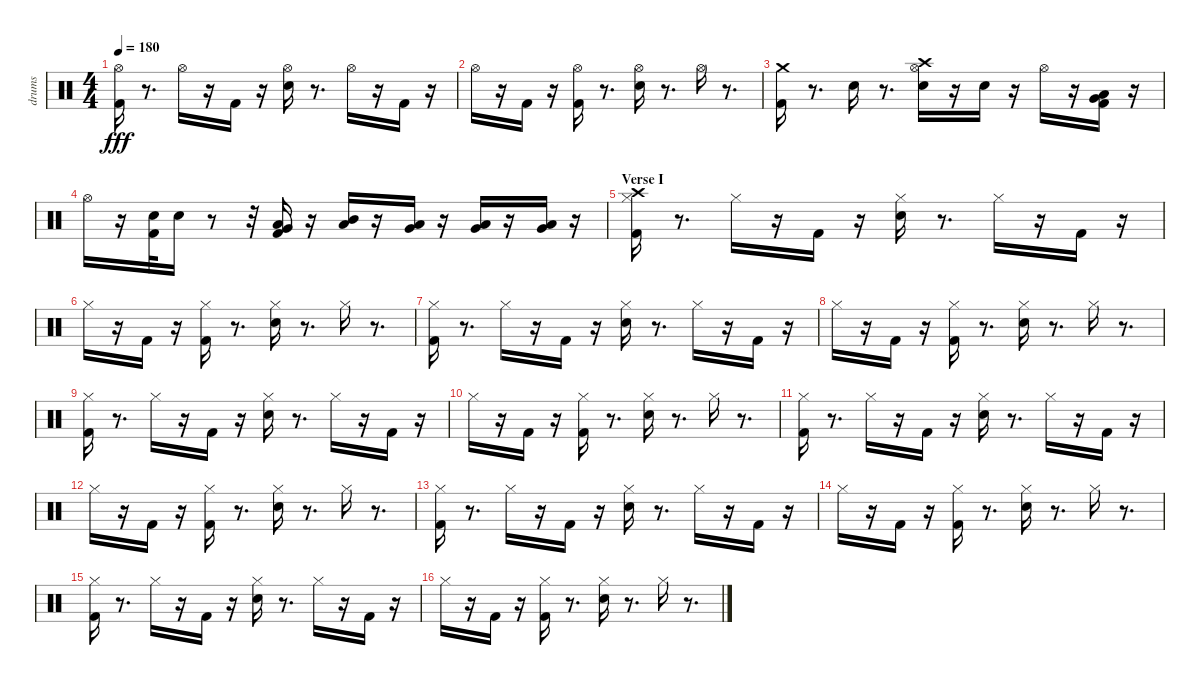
\track ("drums" "drums") {instrument percussion}
\staff {score}
\articulation defaults
\ts (4 4)
\tempo 180
\clef neutral
\ks c
("Kick (hit) 2" "Hi-Hat (open)").16{dy fff} r.8{d} "Hi-Hat (open)".16 r.16 "Kick (hit) 2".16 r.16 ("Electric Snare (hit)" "Hi-Hat (open)").16 r.8{d} "Hi-Hat (open)".16 r.16 "Kick (hit) 2".16 r.16 |
"Hi-Hat (open)".16 r.16 "Kick (hit) 2".16 r.16 ("Hi-Hat (open)" "Kick (hit) 2").16 r.8{d} ("Hi-Hat (open)" "Electric Snare (hit)").16 r.8{d} "Hi-Hat (open)".16 r.8{d} |
("Crash medium (hit)" "Kick (hit) 2").16 r.8{d} "Electric Snare (hit)".16 r.8{d} ("Crash high (hit)" "Hi-Hat (open)" "Electric Snare (hit)").16 r.16 "Electric Snare (hit)".16 r.16 "Hi-Hat (open)".16 r.16 ("Very Low Tom (hit)" "Low Floor Tom (hit)" "Kick (hit) 2").16 r.16 |
"Hi-Hat (open)".16 r.16 ("Electric Snare (hit)" "Kick (hit) 2").32 "Electric Snare (hit)".16 r.8 r.32 ("Low Tom (hit)" "Very Low Tom (hit)" "Kick (hit) 2").16 r.16 ("Mid Tom (hit)" "Low Tom (hit)").16 r.16 ("Low Tom (hit)" "Very Low Tom (hit)").16 r.16 ("Low Tom (hit)" "Very Low Tom (hit)").16 r.16 ("Very Low Tom (hit)" "Low Floor Tom (hit)").16 r.16 |
\section ("" "Verse I")
("Kick (hit) 2" "Crash high (hit)" "Hi-Hat (closed)").16 r.8{d} "Hi-Hat (closed)".16 r.16 "Kick (hit) 2".16 r.16 ("Electric Snare (hit)" "Hi-Hat (closed)").16 r.8{d} "Hi-Hat (closed)".16 r.16 "Kick (hit) 2".16 r.16 |
"Hi-Hat (closed)".16 r.16 "Kick (hit) 2".16 r.16 ("Hi-Hat (closed)" "Kick (hit) 2").16 r.8{d} ("Hi-Hat (closed)" "Electric Snare (hit)").16 r.8{d} "Hi-Hat (closed)".16 r.8{d} |
("Kick (hit) 2" "Hi-Hat (closed)").16 r.8{d} "Hi-Hat (closed)".16 r.16 "Kick (hit) 2".16 r.16 ("Electric Snare (hit)" "Hi-Hat (closed)").16 r.8{d} "Hi-Hat (closed)".16 r.16 "Kick (hit) 2".16 r.16 |
"Hi-Hat (closed)".16 r.16 "Kick (hit) 2".16 r.16 ("Hi-Hat (closed)" "Kick (hit) 2").16 r.8{d} ("Hi-Hat (closed)" "Electric Snare (hit)").16 r.8{d} "Hi-Hat (closed)".16 r.8{d} |
("Kick (hit) 2" "Hi-Hat (closed)").16 r.8{d} "Hi-Hat (closed)".16 r.16 "Kick (hit) 2".16 r.16 ("Electric Snare (hit)" "Hi-Hat (closed)").16 r.8{d} "Hi-Hat (closed)".16 r.16 "Kick (hit) 2".16 r.16 |
"Hi-Hat (closed)".16 r.16 "Kick (hit) 2".16 r.16 ("Hi-Hat (closed)" "Kick (hit) 2").16 r.8{d} ("Hi-Hat (closed)" "Electric Snare (hit)").16 r.8{d} "Hi-Hat (closed)".16 r.8{d} |
("Kick (hit) 2" "Hi-Hat (closed)").16 r.8{d} "Hi-Hat (closed)".16 r.16 "Kick (hit) 2".16 r.16 ("Electric Snare (hit)" "Hi-Hat (closed)").16 r.8{d} "Hi-Hat (closed)".16 r.16 "Kick (hit) 2".16 r.16 |
"Hi-Hat (closed)".16 r.16 "Kick (hit) 2".16 r.16 ("Hi-Hat (closed)" "Kick (hit) 2").16 r.8{d} ("Hi-Hat (closed)" "Electric Snare (hit)").16 r.8{d} "Hi-Hat (closed)".16 r.8{d} |
("Kick (hit) 2" "Hi-Hat (closed)").16 r.8{d} "Hi-Hat (closed)".16 r.16 "Kick (hit) 2".16 r.16 ("Electric Snare (hit)" "Hi-Hat (closed)").16 r.8{d} "Hi-Hat (closed)".16 r.16 "Kick (hit) 2".16 r.16 |
"Hi-Hat (closed)".16 r.16 "Kick (hit) 2".16 r.16 ("Hi-Hat (closed)" "Kick (hit) 2").16 r.8{d} ("Hi-Hat (closed)" "Electric Snare (hit)").16 r.8{d} "Hi-Hat (closed)".16 r.8{d} |
("Kick (hit) 2" "Hi-Hat (closed)").16 r.8{d} "Hi-Hat (closed)".16 r.16 "Kick (hit) 2".16 r.16 ("Electric Snare (hit)" "Hi-Hat (closed)").16 r.8{d} "Hi-Hat (closed)".16 r.16 "Kick (hit) 2".16 r.16 |
"Hi-Hat (closed)".16 r.16 "Kick (hit) 2".16 r.16 ("Hi-Hat (closed)" "Kick (hit) 2").16 r.8{d} ("Hi-Hat (closed)" "Electric Snare (hit)").16 r.8{d} "Hi-Hat (closed)".16 r.8{d}
